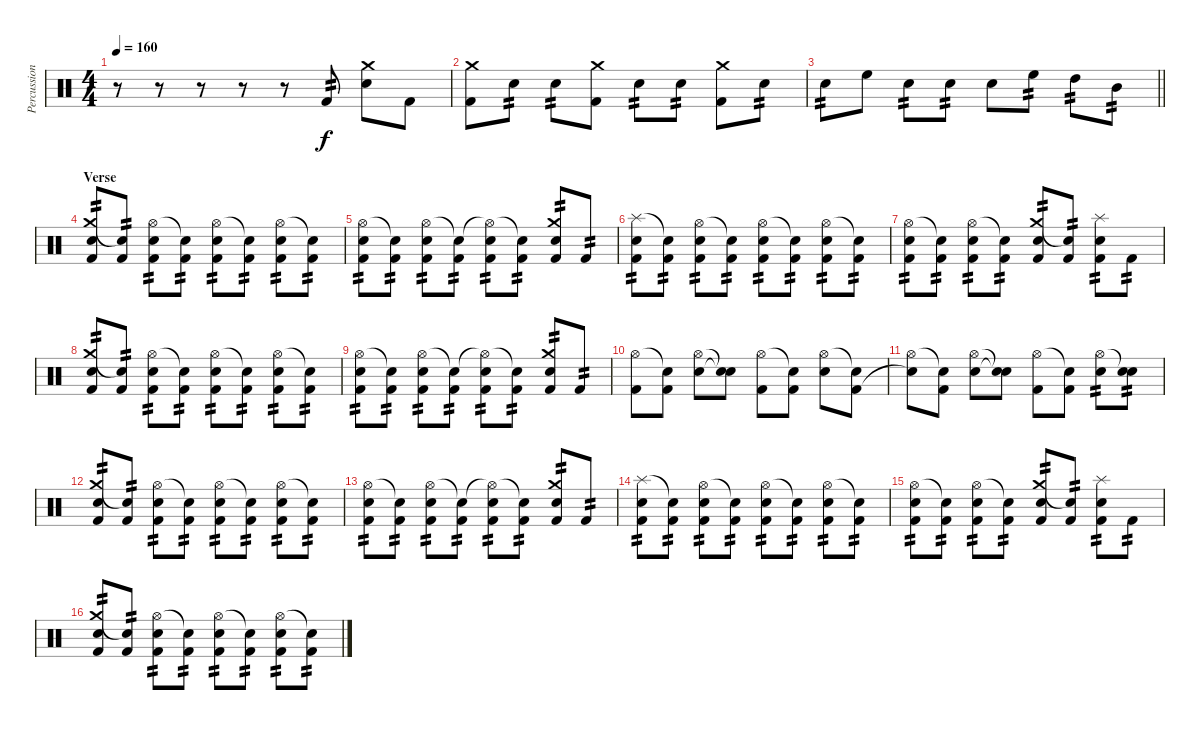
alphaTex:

\track ("Percussion" "Percussion") {instrument percussion}
\staff {score}
\articulation defaults
\ts (4 4)
\tempo 160
\clef neutral
\ks c
r.8{dy f} r.8 r.8 r.8 r.8 "Kick (hit) 2".8{tp 2} ("Crash medium (hit)" "Electric Snare (hit)").8 "Kick (hit) 2".8 |
("Crash medium (hit)" "Kick (hit) 2").8 "Electric Snare (hit)".8{tp 2} "Electric Snare (hit)".8{tp 2} ("Crash medium (hit)" "Kick (hit) 2").8 "Electric Snare (hit)".8{tp 2} "Electric Snare (hit)".8{tp 2} ("Crash medium (hit)" "Kick (hit) 2").8 "Electric Snare (hit)".8{tp 2} |
\barLineRight lightlight "Electric Snare (hit)".8{tp 2} "High Floor Tom (hit)".8 "Electric Snare (hit)".8{tp 2} "Electric Snare (hit)".8{tp 2} "Electric Snare (hit)".8 "High Floor Tom (hit)".8{tp 2} "High Tom (hit)".8{tp 2} "Mid Tom (hit)".8{tp 2}
|
\section ("" "Verse")
("Crash medium (hit)" "Electric Snare (hit)" "Kick (hit) 2").8{tp 2} ("Snare (hit)"{t} "Kick (hit) 2").8{tp 2} ("Hi-Hat (open)" "Electric Snare (hit)" "Kick (hit) 2").8{tp 2} ("Snare (hit)"{t} "Kick (hit) 2").8{tp 2} ("Hi-Hat (open)" "Electric Snare (hit)" "Kick (hit) 2").8{tp 2} ("Snare (hit)"{t} "Kick (hit) 2").8{tp 2} ("Hi-Hat (open)" "Electric Snare (hit)" "Kick (hit) 2").8{tp 2} ("Snare (hit)"{t} "Kick (hit) 2").8{tp 2} |
("Hi-Hat (open)" "Electric Snare (hit)" "Kick (hit) 2").8{tp 2} ("Snare (hit)"{t} "Kick (hit) 2").8{tp 2} ("Hi-Hat (open)" "Electric Snare (hit)" "Kick (hit) 2").8{tp 2} ("Snare (hit)"{t} "Kick (hit) 2").8{tp 2} ("Hi-Hat (open)"{t} "Electric Snare (hit)" "Kick (hit) 2").8{tp 2} ("Snare (hit)"{t} "Kick (hit) 2").8{tp 2} ("Crash medium (hit)" "Electric Snare (hit)" "Kick (hit) 2").8{tp 2} "Kick (hit) 2".8{tp 2} |
("Splash (hit)" "Electric Snare (hit)" "Kick (hit) 2").8{tp 2} ("Snare (hit)"{t} "Kick (hit) 2").8{tp 2} ("Hi-Hat (open)" "Electric Snare (hit)" "Kick (hit) 2").8{tp 2} ("Snare (hit)"{t} "Kick (hit) 2").8{tp 2} ("Hi-Hat (open)" "Electric Snare (hit)" "Kick (hit) 2").8{tp 2} ("Snare (hit)"{t} "Kick (hit) 2").8{tp 2} ("Hi-Hat (open)" "Electric Snare (hit)" "Kick (hit) 2").8{tp 2} ("Snare (hit)"{t} "Kick (hit) 2").8{tp 2} |
("Hi-Hat (open)" "Electric Snare (hit)" "Kick (hit) 2").8{tp 2} ("Snare (hit)"{t} "Kick (hit) 2").8{tp 2} ("Hi-Hat (open)" "Electric Snare (hit)" "Kick (hit) 2").8{tp 2} ("Snare (hit)"{t} "Kick (hit) 2").8{tp 2} ("Crash medium (hit)" "Electric Snare (hit)" "Kick (hit) 2").8{tp 2} ("Snare (hit)"{t} "Kick (hit) 2").8{tp 2} ("Splash (hit)" "Electric Snare (hit)" "Kick (hit) 2").8{tp 2} "Kick (hit) 2".8{tp 2} |
("Crash medium (hit)" "Electric Snare (hit)" "Kick (hit) 2").8{tp 2} ("Snare (hit)"{t} "Kick (hit) 2").8{tp 2} ("Hi-Hat (open)" "Electric Snare (hit)" "Kick (hit) 2").8{tp 2} ("Snare (hit)"{t} "Kick (hit) 2").8{tp 2} ("Hi-Hat (open)" "Electric Snare (hit)" "Kick (hit) 2").8{tp 2} ("Snare (hit)"{t} "Kick (hit) 2").8{tp 2} ("Hi-Hat (open)" "Electric Snare (hit)" "Kick (hit) 2").8{tp 2} ("Snare (hit)"{t} "Kick (hit) 2").8{tp 2} |
("Hi-Hat (open)" "Electric Snare (hit)" "Kick (hit) 2").8{tp 2} ("Snare (hit)"{t} "Kick (hit) 2").8{tp 2} ("Hi-Hat (open)" "Electric Snare (hit)" "Kick (hit) 2").8{tp 2} ("Snare (hit)"{t} "Kick (hit) 2").8{tp 2} ("Hi-Hat (open)"{t} "Electric Snare (hit)" "Kick (hit) 2").8{tp 2} ("Snare (hit)"{t} "Kick (hit) 2").8{tp 2} ("Crash medium (hit)" "Electric Snare (hit)" "Kick (hit) 2").8{tp 2} "Kick (hit) 2".8{tp 2} |
("Hi-Hat (open)" "Kick (hit) 2").8 ("Snare (hit)"{t} "Kick (hit) 2").8 ("Hi-Hat (open)" "Electric Snare (hit)").8 ("Snare (hit)"{t} "Snare (hit)"{t}).8 ("Hi-Hat (open)" "Kick (hit) 2").8 ("Snare (hit)"{t} "Kick (hit) 2").8 ("Hi-Hat (open)" "Electric Snare (hit)").8 ("Snare (hit)"{t} "Kick (hit) 2").8 |
("Hi-Hat (open)" "Snare (hit)"{t}).8 ("Snare (hit)"{t} "Kick (hit) 2").8 ("Hi-Hat (open)" "Electric Snare (hit)").8 ("Snare (hit)"{t} "Snare (hit)"{t}).8 ("Hi-Hat (open)" "Kick (hit) 2").8 ("Snare (hit)"{t} "Kick (hit) 2").8 ("Hi-Hat (open)" "Electric Snare (hit)").8{tp 2} ("Snare (hit)"{t} "Electric Snare (hit)").8{tp 2} |
("Crash medium (hit)" "Electric Snare (hit)" "Kick (hit) 2").8{tp 2} ("Snare (hit)"{t} "Kick (hit) 2").8{tp 2} ("Hi-Hat (open)" "Electric Snare (hit)" "Kick (hit) 2").8{tp 2} ("Snare (hit)"{t} "Kick (hit) 2").8{tp 2} ("Hi-Hat (open)" "Electric Snare (hit)" "Kick (hit) 2").8{tp 2} ("Snare (hit)"{t} "Kick (hit) 2").8{tp 2} ("Hi-Hat (open)" "Electric Snare (hit)" "Kick (hit) 2").8{tp 2} ("Snare (hit)"{t} "Kick (hit) 2").8{tp 2} |
("Hi-Hat (open)" "Electric Snare (hit)" "Kick (hit) 2").8{tp 2} ("Snare (hit)"{t} "Kick (hit) 2").8{tp 2} ("Hi-Hat (open)" "Electric Snare (hit)" "Kick (hit) 2").8{tp 2} ("Snare (hit)"{t} "Kick (hit) 2").8{tp 2} ("Hi-Hat (open)"{t} "Electric Snare (hit)" "Kick (hit) 2").8{tp 2} ("Snare (hit)"{t} "Kick (hit) 2").8{tp 2} ("Crash medium (hit)" "Electric Snare (hit)" "Kick (hit) 2").8{tp 2} "Kick (hit) 2".8{tp 2} |
("Splash (hit)" "Electric Snare (hit)" "Kick (hit) 2").8{tp 2} ("Snare (hit)"{t} "Kick (hit) 2").8{tp 2} ("Hi-Hat (open)" "Electric Snare (hit)" "Kick (hit) 2").8{tp 2} ("Snare (hit)"{t} "Kick (hit) 2").8{tp 2} ("Hi-Hat (open)" "Electric Snare (hit)" "Kick (hit) 2").8{tp 2} ("Snare (hit)"{t} "Kick (hit) 2").8{tp 2} ("Hi-Hat (open)" "Electric Snare (hit)" "Kick (hit) 2").8{tp 2} ("Snare (hit)"{t} "Kick (hit) 2").8{tp 2} |
("Hi-Hat (open)" "Electric Snare (hit)" "Kick (hit) 2").8{tp 2} ("Snare (hit)"{t} "Kick (hit) 2").8{tp 2} ("Hi-Hat (open)" "Electric Snare (hit)" "Kick (hit) 2").8{tp 2} ("Snare (hit)"{t} "Kick (hit) 2").8{tp 2} ("Crash medium (hit)" "Electric Snare (hit)" "Kick (hit) 2").8{tp 2} ("Snare (hit)"{t} "Kick (hit) 2").8{tp 2} ("Splash (hit)" "Electric Snare (hit)" "Kick (hit) 2").8{tp 2} "Kick (hit) 2".8{tp 2} |
("Crash medium (hit)" "Electric Snare (hit)" "Kick (hit) 2").8{tp 2} ("Snare (hit)"{t} "Kick (hit) 2").8{tp 2} ("Hi-Hat (open)" "Electric Snare (hit)" "Kick (hit) 2").8{tp 2} ("Snare (hit)"{t} "Kick (hit) 2").8{tp 2} ("Hi-Hat (open)" "Electric Snare (hit)" "Kick (hit) 2").8{tp 2} ("Snare (hit)"{t} "Kick (hit) 2").8{tp 2} ("Hi-Hat (open)" "Electric Snare (hit)" "Kick (hit) 2").8{tp 2} ("Snare (hit)"{t} "Kick (hit) 2").8{tp 2}
